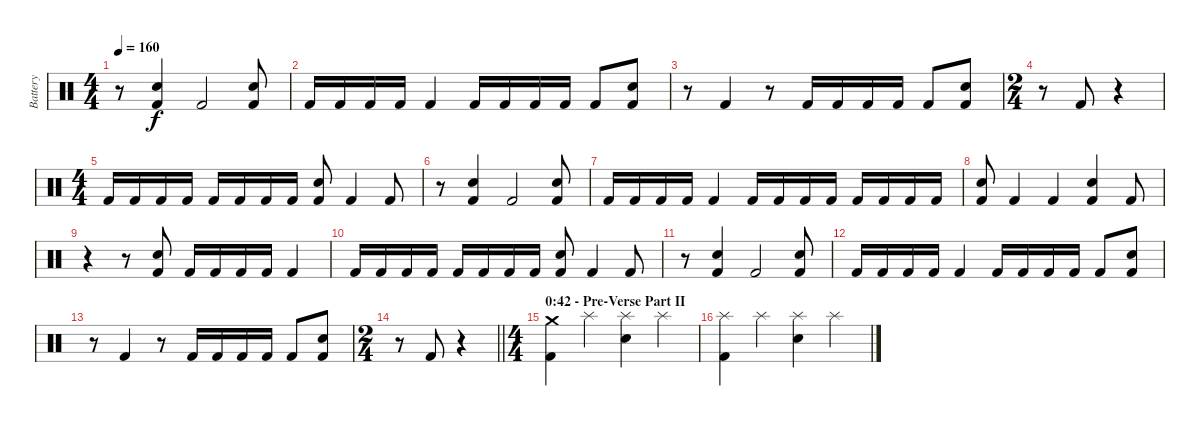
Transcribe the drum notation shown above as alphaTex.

\track ("Battery" "Battery") {instrument percussion}
\staff {score}
\articulation defaults
\ts (4 4)
\tempo 160
\clef neutral
\ks c
r.8{dy f} ("Electric Snare (hit)" "Kick (hit) 2").4 "Kick (hit) 2".2 ("Electric Snare (hit)" "Kick (hit) 2").8 |
"Kick (hit) 2".16 "Kick (hit) 2".16 "Kick (hit) 2".16 "Kick (hit) 2".16 "Kick (hit) 2".4 "Kick (hit) 2".16 "Kick (hit) 2".16 "Kick (hit) 2".16 "Kick (hit) 2".16 "Kick (hit) 2".8 ("Electric Snare (hit)" "Kick (hit) 2").8 |
r.8 "Kick (hit) 2".4 r.8 "Kick (hit) 2".16 "Kick (hit) 2".16 "Kick (hit) 2".16 "Kick (hit) 2".16 "Kick (hit) 2".8 ("Electric Snare (hit)" "Kick (hit) 2").8 |
\ts (2 4)
r.8 "Kick (hit) 2".8 r.4 |
\ts (4 4)
"Kick (hit) 2".16 "Kick (hit) 2".16 "Kick (hit) 2".16 "Kick (hit) 2".16 "Kick (hit) 2".16 "Kick (hit) 2".16 "Kick (hit) 2".16 "Kick (hit) 2".16 ("Electric Snare (hit)" "Kick (hit) 2").8 "Kick (hit) 2".4 "Kick (hit) 2".8 |
r.8 ("Electric Snare (hit)" "Kick (hit) 2").4 "Kick (hit) 2".2 ("Electric Snare (hit)" "Kick (hit) 2").8 |
"Kick (hit) 2".16 "Kick (hit) 2".16 "Kick (hit) 2".16 "Kick (hit) 2".16 "Kick (hit) 2".4 "Kick (hit) 2".16 "Kick (hit) 2".16 "Kick (hit) 2".16 "Kick (hit) 2".16 "Kick (hit) 2".16 "Kick (hit) 2".16 "Kick (hit) 2".16 "Kick (hit) 2".16 |
("Electric Snare (hit)" "Kick (hit) 2").8 "Kick (hit) 2".4 "Kick (hit) 2".4 ("Electric Snare (hit)" "Kick (hit) 2").4 "Kick (hit) 2".8 |
r.4 r.8 ("Electric Snare (hit)" "Kick (hit) 2").8 "Kick (hit) 2".16 "Kick (hit) 2".16 "Kick (hit) 2".16 "Kick (hit) 2".16 "Kick (hit) 2".4 |
"Kick (hit) 2".16 "Kick (hit) 2".16 "Kick (hit) 2".16 "Kick (hit) 2".16 "Kick (hit) 2".16 "Kick (hit) 2".16 "Kick (hit) 2".16 "Kick (hit) 2".16 ("Electric Snare (hit)" "Kick (hit) 2").8 "Kick (hit) 2".4 "Kick (hit) 2".8 |
r.8 ("Electric Snare (hit)" "Kick (hit) 2").4 "Kick (hit) 2".2 ("Electric Snare (hit)" "Kick (hit) 2").8 |
"Kick (hit) 2".16 "Kick (hit) 2".16 "Kick (hit) 2".16 "Kick (hit) 2".16 "Kick (hit) 2".4 "Kick (hit) 2".16 "Kick (hit) 2".16 "Kick (hit) 2".16 "Kick (hit) 2".16 "Kick (hit) 2".8 ("Electric Snare (hit)" "Kick (hit) 2").8 |
r.8 "Kick (hit) 2".4 r.8 "Kick (hit) 2".16 "Kick (hit) 2".16 "Kick (hit) 2".16 "Kick (hit) 2".16 "Kick (hit) 2".8 ("Electric Snare (hit)" "Kick (hit) 2").8 |
\ts (2 4)
\barLineRight lightlight
r.8 "Kick (hit) 2".8 r.4 |
\ts (4 4)
\section ("" "0:42 - Pre-Verse Part II")
("Crash medium (hit)" "Kick (hit) 2").4 "Splash (hit)".4 ("Splash (hit)" "Electric Snare (hit)").4 "Splash (hit)".4 |
("Splash (hit)" "Kick (hit) 2").4 "Splash (hit)".4 ("Splash (hit)" "Electric Snare (hit)").4 "Splash (hit)".4
